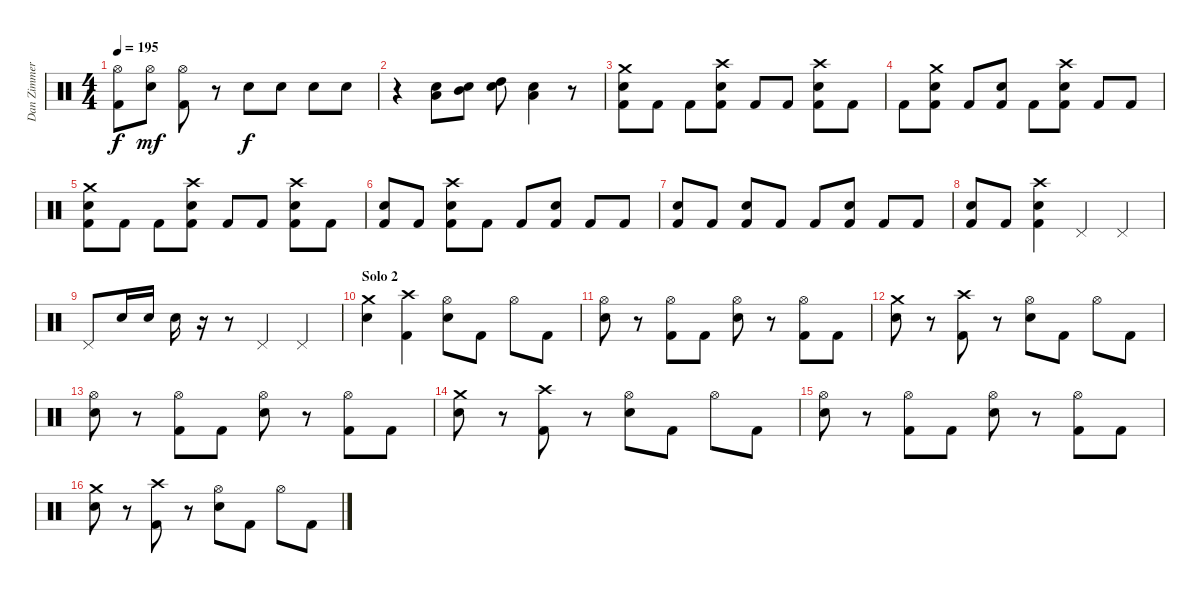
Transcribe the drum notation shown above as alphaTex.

\track ("Dan Zimmermann" "Dan Zimmer") {instrument percussion}
\staff {score}
\articulation defaults
\ts (4 4)
\tempo 195
\clef neutral
\ks c
("Hi-Hat (open)" "Kick (hit) 2").8{dy f} ("Hi-Hat (open)" "Electric Snare (hit)").8{dy mf} ("Hi-Hat (open)" "Kick (hit) 2").8 r.8 "Electric Snare (hit)".8{dy f} "Electric Snare (hit)".8 "Electric Snare (hit)".8 "Electric Snare (hit)".8 |
r.4 ("Low Tom (hit)" "Electric Snare (hit)").8 ("Mid Tom (hit)" "Electric Snare (hit)").8 ("High Tom (hit)" "Electric Snare (hit)").8 ("Low Tom (hit)" "Electric Snare (hit)").4 r.8 |
("Crash medium (hit)" "Electric Snare (hit)" "Kick (hit) 2").8 "Kick (hit) 2".8 "Kick (hit) 2".8 ("Crash high (hit)" "Electric Snare (hit)" "Kick (hit) 2").8 "Kick (hit) 2".8 "Kick (hit) 2".8 ("Crash high (hit)" "Electric Snare (hit)" "Kick (hit) 2").8 "Kick (hit) 2".8 |
"Kick (hit) 2".8 ("Crash medium (hit)" "Electric Snare (hit)" "Kick (hit) 2").8 "Kick (hit) 2".8 ("Electric Snare (hit)" "Kick (hit) 2").8 "Kick (hit) 2".8 ("Crash high (hit)" "Electric Snare (hit)" "Kick (hit) 2").8 "Kick (hit) 2".8 "Kick (hit) 2".8 |
("Crash medium (hit)" "Electric Snare (hit)" "Kick (hit) 2").8 "Kick (hit) 2".8 "Kick (hit) 2".8 ("Crash high (hit)" "Electric Snare (hit)" "Kick (hit) 2").8 "Kick (hit) 2".8 "Kick (hit) 2".8 ("Crash high (hit)" "Electric Snare (hit)" "Kick (hit) 2").8 "Kick (hit) 2".8 |
("Electric Snare (hit)" "Kick (hit) 2").8 "Kick (hit) 2".8 ("Crash high (hit)" "Electric Snare (hit)" "Kick (hit) 2").8 "Kick (hit) 2".8 "Kick (hit) 2".8 ("Electric Snare (hit)" "Kick (hit) 2").8 "Kick (hit) 2".8 "Kick (hit) 2".8 |
("Electric Snare (hit)" "Kick (hit) 2").8 "Kick (hit) 2".8 ("Electric Snare (hit)" "Kick (hit) 2").8 "Kick (hit) 2".8 "Kick (hit) 2".8 ("Electric Snare (hit)" "Kick (hit) 2").8 "Kick (hit) 2".8 "Kick (hit) 2".8 |
("Electric Snare (hit)" "Kick (hit) 2").8 "Kick (hit) 2".8 ("Crash high (hit)" "Electric Snare (hit)" "Kick (hit) 2").4 "Pedal Hi-Hat (hit)".4 "Pedal Hi-Hat (hit)".4 |
"Pedal Hi-Hat (hit)".8 "Electric Snare (hit)".16 "Electric Snare (hit)".16 "Electric Snare (hit)".16 r.16 r.8 "Pedal Hi-Hat (hit)".4 "Pedal Hi-Hat (hit)".4 |
\section ("" "Solo 2")
("Crash medium (hit)" "Electric Snare (hit)").4 ("Crash high (hit)" "Kick (hit) 2").4 ("Hi-Hat (open)" "Electric Snare (hit)").8 "Kick (hit) 2".8 "Hi-Hat (open)".8 "Kick (hit) 2".8 |
("Hi-Hat (open)" "Electric Snare (hit)").8 r.8 ("Hi-Hat (open)" "Kick (hit) 2").8 "Kick (hit) 2".8 ("Hi-Hat (open)" "Electric Snare (hit)").8 r.8 ("Hi-Hat (open)" "Kick (hit) 2").8 "Kick (hit) 2".8 |
("Crash medium (hit)" "Electric Snare (hit)").8 r.8 ("Crash high (hit)" "Kick (hit) 2").8 r.8 ("Hi-Hat (open)" "Electric Snare (hit)").8 "Kick (hit) 2".8 "Hi-Hat (open)".8 "Kick (hit) 2".8 |
("Hi-Hat (open)" "Electric Snare (hit)").8 r.8 ("Hi-Hat (open)" "Kick (hit) 2").8 "Kick (hit) 2".8 ("Hi-Hat (open)" "Electric Snare (hit)").8 r.8 ("Hi-Hat (open)" "Kick (hit) 2").8 "Kick (hit) 2".8 |
("Crash medium (hit)" "Electric Snare (hit)").8 r.8 ("Crash high (hit)" "Kick (hit) 2").8 r.8 ("Hi-Hat (open)" "Electric Snare (hit)").8 "Kick (hit) 2".8 "Hi-Hat (open)".8 "Kick (hit) 2".8 |
("Hi-Hat (open)" "Electric Snare (hit)").8 r.8 ("Hi-Hat (open)" "Kick (hit) 2").8 "Kick (hit) 2".8 ("Hi-Hat (open)" "Electric Snare (hit)").8 r.8 ("Hi-Hat (open)" "Kick (hit) 2").8 "Kick (hit) 2".8 |
("Crash medium (hit)" "Electric Snare (hit)").8 r.8 ("Crash high (hit)" "Kick (hit) 2").8 r.8 ("Hi-Hat (open)" "Electric Snare (hit)").8 "Kick (hit) 2".8 "Hi-Hat (open)".8 "Kick (hit) 2".8
